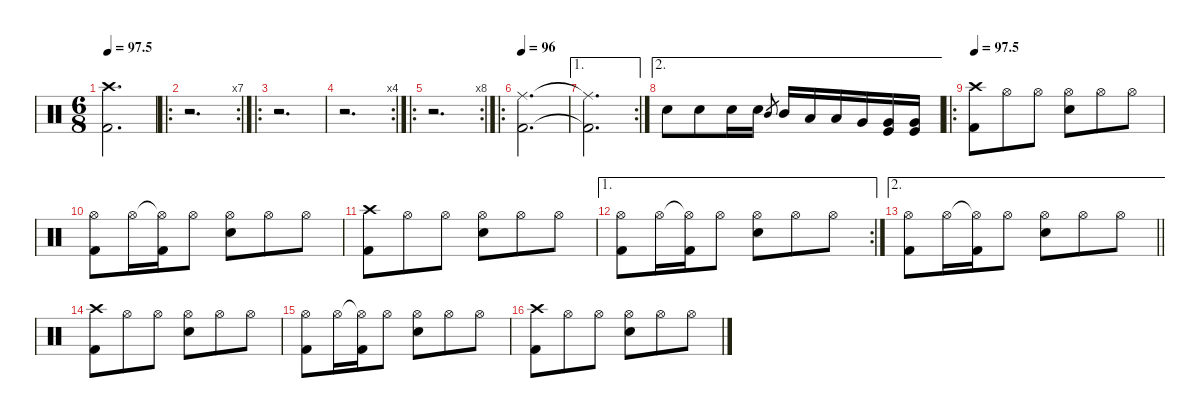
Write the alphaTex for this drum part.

\defaultSystemsLayout 4
\hideDynamics
\bracketExtendMode nobrackets
\singleTrackTrackNamePolicy hidden
\multiTrackTrackNamePolicy hidden
\firstSystemTrackNameMode fullname
\firstSystemTrackNameOrientation horizontal
\otherSystemsTrackNameOrientation horizontal
\track ("Drums" "drm.") {instrument percussion}
\staff {score}
\articulation defaults
\ts (6 8)
\tempo
97.5
\accidentals auto
\clef neutral
\ottava regular
\simile none
\ks c
("Crash high (hit)" "Kick (hit) 2").2{d dy f beam Down} |
\ro
\rc 7
r.2{d beam Down} |
\ro
r.2{d beam Down} |
\rc 4
r.2{d beam Down} |
\ro
\rc 8
r.2{d beam Down} |
\ro
\tempo 96
("Ride (middle)" "Kick (hit) 2").2{d dy ff beam Down} |
\ae 1
\rc 2
("Ride (middle)"{t} "Kick (hit) 2"{t}).2{d dy f beam Down} |
\ae 2 "Snare (hit) 2".8{beam Down} "Snare (hit) 2".8{beam Down} "Snare (hit) 2".16{beam Down} "Snare (hit) 2".16{beam Down} "Mid Tom (hit)".8{gr dy mf beam Up} "Mid Tom (hit)".16{dy fff beam Up} "Low Tom (hit)".16{beam Up} "Low Tom (hit)".16{beam Up} "Very Low Tom (hit)".16{beam Up}
("Very Low Tom (hit)" "Kick (hit)").16{beam Up} ("Kick (hit)" "Very Low Tom (hit)").16{beam Up} |
\ro
\tempo
97.5 ("Crash high (hit)" "Kick (hit) 2").8{dy f beam Down} "Hi-Hat (open)".8{beam Down} "Hi-Hat (open)".8{beam Down} ("Hi-Hat (open)" "Snare (hit) 2").8{beam Down} "Hi-Hat (open)".8{beam Down} "Hi-Hat (open)".8{beam Down} |
("Hi-Hat (open)" "Kick (hit) 2").8{beam Down} "Hi-Hat (open)".16{beam Down} ("Hi-Hat (open)"{t} "Kick (hit) 2").16{beam Down} "Hi-Hat (open)".8{beam Down} ("Hi-Hat (open)" "Snare (hit) 2").8{beam Down} "Hi-Hat (open)".8{beam Down} "Hi-Hat (open)".8{beam Down} |
("Crash high (hit)" "Kick (hit) 2").8{beam Down} "Hi-Hat (open)".8{beam Down} "Hi-Hat (open)".8{beam Down} ("Hi-Hat (open)" "Snare (hit) 2").8{beam Down} "Hi-Hat (open)".8{beam Down} "Hi-Hat (open)".8{beam Down} |
\ae 1
\rc 2
("Hi-Hat (open)" "Kick (hit) 2").8{beam Down} "Hi-Hat (open)".16{beam Down} ("Hi-Hat (open)"{t} "Kick (hit) 2").16{beam Down} "Hi-Hat (open)".8{beam Down} ("Hi-Hat (open)" "Snare (hit) 2").8{beam Down} "Hi-Hat (open)".8{beam Down} "Hi-Hat (open)".8{beam Down} |
\ae 2
\barLineRight lightlight
("Hi-Hat (open)" "Kick (hit) 2").8{beam Down} "Hi-Hat (open)".16{beam Down} ("Hi-Hat (open)"{t} "Kick (hit) 2").16{beam Down} "Hi-Hat (open)".8{beam Down} ("Hi-Hat (open)" "Snare (hit) 2").8{beam Down} "Hi-Hat (open)".8{beam Down} "Hi-Hat (open)".8{beam Down} |
("Crash high (hit)" "Kick (hit) 2").8{beam Down} "Hi-Hat (open)".8{beam Down} "Hi-Hat (open)".8{beam Down} ("Hi-Hat (open)" "Snare (hit) 2").8{beam Down} "Hi-Hat (open)".8{beam Down} "Hi-Hat (open)".8{beam Down} |
("Hi-Hat (open)" "Kick (hit) 2").8{beam Down} "Hi-Hat (open)".16{beam Down} ("Hi-Hat (open)"{t} "Kick (hit) 2").16{beam Down} "Hi-Hat (open)".8{beam Down} ("Hi-Hat (open)" "Snare (hit) 2").8{beam Down} "Hi-Hat (open)".8{beam Down} "Hi-Hat (open)".8{beam Down} |
("Crash high (hit)" "Kick (hit) 2").8{beam Down} "Hi-Hat (open)".8{beam Down} "Hi-Hat (open)".8{beam Down} ("Hi-Hat (open)" "Snare (hit) 2").8{beam Down} "Hi-Hat (open)".8{beam Down} "Hi-Hat (open)".8{beam Down}
